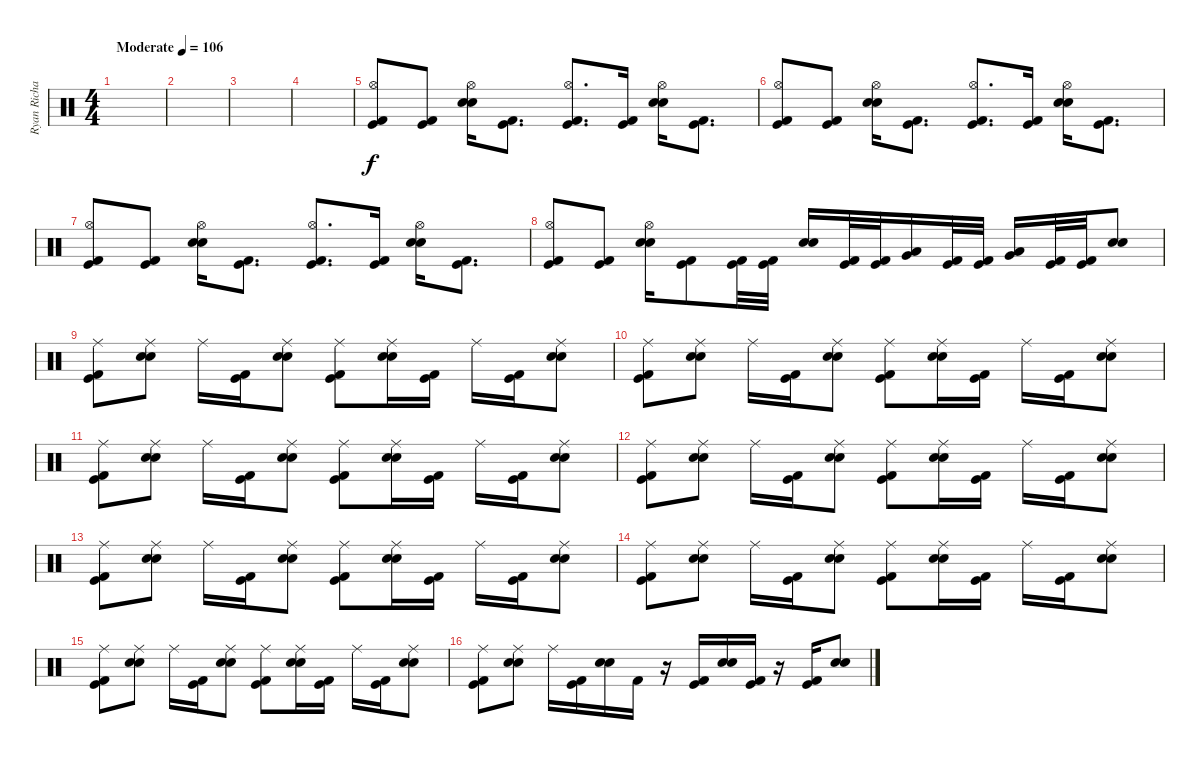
\track ("Ryan Richards" "Ryan Richa") {instrument percussion}
\staff {score}
\articulation defaults
\ts (4 4)
\tempo (106 "Moderate")
\clef neutral
\ks c
|
|
|
|
("Kick (hit)" "Hi-Hat (open)" "Kick (hit) 2").8 ("Kick (hit)" "Kick (hit) 2").8 ("Hi-Hat (open)" "Snare (hit) 2" "Electric Snare (hit)").16 ("Kick (hit)" "Kick (hit) 2").8{d} ("Kick (hit)" "Hi-Hat (open)" "Kick (hit) 2").8{d} ("Kick (hit)" "Kick (hit) 2").16 ("Hi-Hat (open)" "Snare (hit) 2" "Electric Snare (hit)").16 ("Kick (hit)" "Kick (hit) 2").8{d} |
("Kick (hit)" "Hi-Hat (open)" "Kick (hit) 2").8 ("Kick (hit)" "Kick (hit) 2").8 ("Hi-Hat (open)" "Snare (hit) 2" "Electric Snare (hit)").16 ("Kick (hit)" "Kick (hit) 2").8{d} ("Kick (hit)" "Hi-Hat (open)" "Kick (hit) 2").8{d} ("Kick (hit)" "Kick (hit) 2").16 ("Hi-Hat (open)" "Snare (hit) 2" "Electric Snare (hit)").16 ("Kick (hit)" "Kick (hit) 2").8{d} |
("Kick (hit)" "Hi-Hat (open)" "Kick (hit) 2").8 ("Kick (hit)" "Kick (hit) 2").8 ("Hi-Hat (open)" "Snare (hit) 2" "Electric Snare (hit)").16 ("Kick (hit)" "Kick (hit) 2").8{d} ("Kick (hit)" "Hi-Hat (open)" "Kick (hit) 2").8{d} ("Kick (hit)" "Kick (hit) 2").16 ("Hi-Hat (open)" "Snare (hit) 2" "Electric Snare (hit)").16 ("Kick (hit)" "Kick (hit) 2").8{d} |
("Kick (hit)" "Hi-Hat (open)" "Kick (hit) 2").8 ("Kick (hit)" "Kick (hit) 2").8 ("Hi-Hat (open)" "Snare (hit) 2" "Electric Snare (hit)").16 ("Kick (hit)" "Kick (hit) 2").8 ("Kick (hit)" "Kick (hit) 2").32 ("Kick (hit)" "Kick (hit) 2").32 ("Snare (hit) 2" "Electric Snare (hit)").16 ("Kick (hit)" "Kick (hit) 2").32 ("Kick (hit)" "Kick (hit) 2").32 ("Very Low Tom (hit)" "Low Floor Tom (hit)").16 ("Kick (hit)" "Kick (hit) 2").32 ("Kick (hit)" "Kick (hit) 2").32 ("Low Tom (hit)" "Very Low Tom (hit)").16 ("Kick (hit)" "Kick (hit) 2").32 ("Kick (hit)" "Kick (hit) 2").32 ("Snare (hit) 2" "Electric Snare (hit)").8 |
("Kick (hit)" "Ride (middle)" "Kick (hit) 2").8 ("Ride (middle)" "Snare (hit) 2" "Electric Snare (hit)").8 "Ride (middle)".16 ("Kick (hit)" "Kick (hit) 2").16 ("Ride (middle)" "Snare (hit) 2" "Electric Snare (hit)").8 ("Kick (hit)" "Ride (middle)" "Kick (hit) 2").8 ("Ride (middle)" "Snare (hit) 2" "Electric Snare (hit)").16 ("Kick (hit)" "Kick (hit) 2").16 "Ride (middle)".16 ("Kick (hit)" "Kick (hit) 2").16 ("Ride (middle)" "Snare (hit) 2" "Electric Snare (hit)").8 |
("Kick (hit)" "Ride (middle)" "Kick (hit) 2").8 ("Ride (middle)" "Snare (hit) 2" "Electric Snare (hit)").8 "Ride (middle)".16 ("Kick (hit)" "Kick (hit) 2").16 ("Ride (middle)" "Snare (hit) 2" "Electric Snare (hit)").8 ("Kick (hit)" "Ride (middle)" "Kick (hit) 2").8 ("Ride (middle)" "Snare (hit) 2" "Electric Snare (hit)").16 ("Kick (hit)" "Kick (hit) 2").16 "Ride (middle)".16 ("Kick (hit)" "Kick (hit) 2").16 ("Ride (middle)" "Snare (hit) 2" "Electric Snare (hit)").8 |
("Kick (hit)" "Ride (middle)" "Kick (hit) 2").8 ("Ride (middle)" "Snare (hit) 2" "Electric Snare (hit)").8 "Ride (middle)".16 ("Kick (hit)" "Kick (hit) 2").16 ("Ride (middle)" "Snare (hit) 2" "Electric Snare (hit)").8 ("Kick (hit)" "Ride (middle)" "Kick (hit) 2").8 ("Ride (middle)" "Snare (hit) 2" "Electric Snare (hit)").16 ("Kick (hit)" "Kick (hit) 2").16 "Ride (middle)".16 ("Kick (hit)" "Kick (hit) 2").16 ("Ride (middle)" "Snare (hit) 2" "Electric Snare (hit)").8 |
("Kick (hit)" "Ride (middle)" "Kick (hit) 2").8 ("Ride (middle)" "Snare (hit) 2" "Electric Snare (hit)").8 "Ride (middle)".16 ("Kick (hit)" "Kick (hit) 2").16 ("Ride (middle)" "Snare (hit) 2" "Electric Snare (hit)").8 ("Kick (hit)" "Ride (middle)" "Kick (hit) 2").8 ("Ride (middle)" "Snare (hit) 2" "Electric Snare (hit)").16 ("Kick (hit)" "Kick (hit) 2").16 "Ride (middle)".16 ("Kick (hit)" "Kick (hit) 2").16 ("Ride (middle)" "Snare (hit) 2" "Electric Snare (hit)").8 |
("Kick (hit)" "Ride (middle)" "Kick (hit) 2").8 ("Ride (middle)" "Snare (hit) 2" "Electric Snare (hit)").8 "Ride (middle)".16 ("Kick (hit)" "Kick (hit) 2").16 ("Ride (middle)" "Snare (hit) 2" "Electric Snare (hit)").8 ("Kick (hit)" "Ride (middle)" "Kick (hit) 2").8 ("Ride (middle)" "Snare (hit) 2" "Electric Snare (hit)").16 ("Kick (hit)" "Kick (hit) 2").16 "Ride (middle)".16 ("Kick (hit)" "Kick (hit) 2").16 ("Ride (middle)" "Snare (hit) 2" "Electric Snare (hit)").8 |
("Kick (hit)" "Ride (middle)" "Kick (hit) 2").8 ("Ride (middle)" "Snare (hit) 2" "Electric Snare (hit)").8 "Ride (middle)".16 ("Kick (hit)" "Kick (hit) 2").16 ("Ride (middle)" "Snare (hit) 2" "Electric Snare (hit)").8 ("Kick (hit)" "Ride (middle)" "Kick (hit) 2").8 ("Ride (middle)" "Snare (hit) 2" "Electric Snare (hit)").16 ("Kick (hit)" "Kick (hit) 2").16 "Ride (middle)".16 ("Kick (hit)" "Kick (hit) 2").16 ("Ride (middle)" "Snare (hit) 2" "Electric Snare (hit)").8 |
("Kick (hit)" "Ride (middle)" "Kick (hit) 2").8 ("Ride (middle)" "Snare (hit) 2" "Electric Snare (hit)").8 "Ride (middle)".16 ("Kick (hit)" "Kick (hit) 2").16 ("Ride (middle)" "Snare (hit) 2" "Electric Snare (hit)").8 ("Kick (hit)" "Ride (middle)" "Kick (hit) 2").8 ("Ride (middle)" "Snare (hit) 2" "Electric Snare (hit)").16 ("Kick (hit)" "Kick (hit) 2").16 "Ride (middle)".16 ("Kick (hit)" "Kick (hit) 2").16 ("Ride (middle)" "Snare (hit) 2" "Electric Snare (hit)").8 |
("Kick (hit)" "Ride (middle)" "Kick (hit) 2").8 ("Ride (middle)" "Snare (hit) 2" "Electric Snare (hit)").8 "Ride (middle)".16 ("Kick (hit)" "Kick (hit) 2").16 ("Snare (hit) 2" "Electric Snare (hit)").16 "Kick (hit) 2".16 r.16 ("Kick (hit)" "Kick (hit) 2").16 ("Snare (hit) 2" "Electric Snare (hit)").16 ("Kick (hit)" "Kick (hit) 2").16 r.16 ("Kick (hit)" "Kick (hit) 2").16 ("Snare (hit) 2" "Electric Snare (hit)").8
